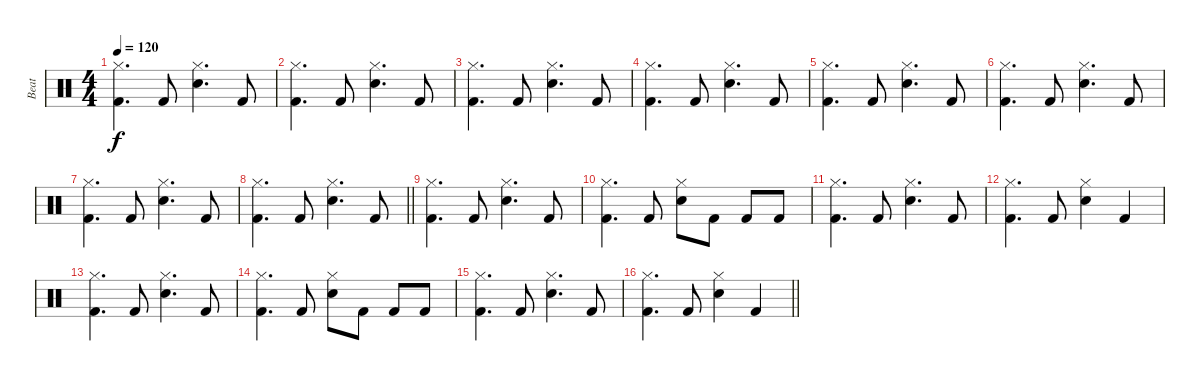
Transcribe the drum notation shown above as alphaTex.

\track ("Beat" "Beat") {instrument percussion}
\staff {score}
\articulation defaults
\ts (4 4)
\tempo 120
\clef neutral
\ks c
("Hi-Hat (closed)" "Kick (hit) 2").4{d dy f} "Kick (hit) 2".8 ("Hi-Hat (closed)" "Snare (hit) 2").4{d} "Kick (hit) 2".8 |
("Hi-Hat (closed)" "Kick (hit) 2").4{d} "Kick (hit) 2".8 ("Hi-Hat (closed)" "Snare (hit) 2").4{d} "Kick (hit) 2".8 |
("Hi-Hat (closed)" "Kick (hit) 2").4{d} "Kick (hit) 2".8 ("Hi-Hat (closed)" "Snare (hit) 2").4{d} "Kick (hit) 2".8 |
("Hi-Hat (closed)" "Kick (hit) 2").4{d} "Kick (hit) 2".8 ("Hi-Hat (closed)" "Snare (hit) 2").4{d} "Kick (hit) 2".8 |
("Hi-Hat (closed)" "Kick (hit) 2").4{d} "Kick (hit) 2".8 ("Hi-Hat (closed)" "Snare (hit) 2").4{d} "Kick (hit) 2".8 |
("Hi-Hat (closed)" "Kick (hit) 2").4{d} "Kick (hit) 2".8 ("Hi-Hat (closed)" "Snare (hit) 2").4{d} "Kick (hit) 2".8 |
("Hi-Hat (closed)" "Kick (hit) 2").4{d} "Kick (hit) 2".8 ("Hi-Hat (closed)" "Snare (hit) 2").4{d} "Kick (hit) 2".8 |
\barLineRight lightlight
("Hi-Hat (closed)" "Kick (hit) 2").4{d} "Kick (hit) 2".8 ("Hi-Hat (closed)" "Snare (hit) 2").4{d} "Kick (hit) 2".8 |
("Hi-Hat (closed)" "Kick (hit) 2").4{d} "Kick (hit) 2".8 ("Hi-Hat (closed)" "Snare (hit) 2").4{d} "Kick (hit) 2".8 |
("Hi-Hat (closed)" "Kick (hit) 2").4{d} "Kick (hit) 2".8 ("Hi-Hat (closed)" "Snare (hit) 2").8 "Kick (hit) 2".8 "Kick (hit) 2".8 "Kick (hit) 2".8 |
("Hi-Hat (closed)" "Kick (hit) 2").4{d} "Kick (hit) 2".8 ("Hi-Hat (closed)" "Snare (hit) 2").4{d} "Kick (hit) 2".8 |
("Hi-Hat (closed)" "Kick (hit) 2").4{d} "Kick (hit) 2".8 ("Hi-Hat (closed)" "Snare (hit) 2").4 "Kick (hit) 2".4 |
("Hi-Hat (closed)" "Kick (hit) 2").4{d} "Kick (hit) 2".8 ("Hi-Hat (closed)" "Snare (hit) 2").4{d} "Kick (hit) 2".8 |
("Hi-Hat (closed)" "Kick (hit) 2").4{d} "Kick (hit) 2".8 ("Hi-Hat (closed)" "Snare (hit) 2").8 "Kick (hit) 2".8 "Kick (hit) 2".8 "Kick (hit) 2".8 |
("Hi-Hat (closed)" "Kick (hit) 2").4{d} "Kick (hit) 2".8 ("Hi-Hat (closed)" "Snare (hit) 2").4{d} "Kick (hit) 2".8 |
\barLineRight lightlight
("Hi-Hat (closed)" "Kick (hit) 2").4{d} "Kick (hit) 2".8 ("Hi-Hat (closed)" "Snare (hit) 2").4 "Kick (hit) 2".4
